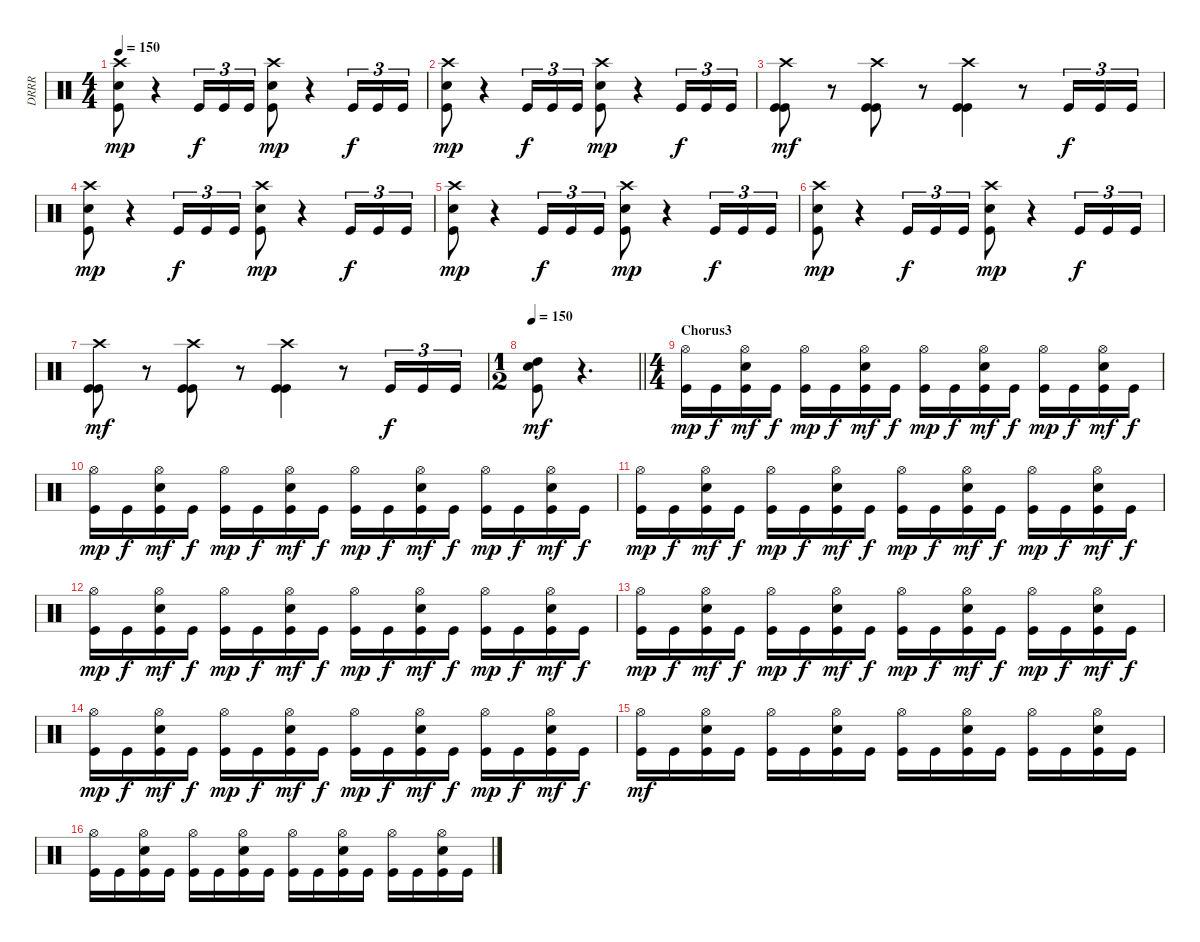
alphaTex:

\track ("DRRR" "DRRR") {instrument percussion}
\staff {score}
\articulation defaults
\ts (4 4)
\tempo 150
\clef neutral
\ks c
("Crash high (hit)" "Snare (hit) 2" "Kick (hit)").8{dy mp} r.4 "Kick (hit)".16{tu (3 2) dy f} "Kick (hit)".16{tu (3 2)} "Kick (hit)".16{tu (3 2)} ("Crash high (hit)" "Snare (hit) 2" "Kick (hit)").8{dy mp} r.4 "Kick (hit)".16{tu (3 2) dy f} "Kick (hit)".16{tu (3 2)} "Kick (hit)".16{tu (3 2)} |
("Crash high (hit)" "Snare (hit) 2" "Kick (hit)").8{dy mp} r.4 "Kick (hit)".16{tu (3 2) dy f} "Kick (hit)".16{tu (3 2)} "Kick (hit)".16{tu (3 2)} ("Crash high (hit)" "Snare (hit) 2" "Kick (hit)").8{dy mp} r.4 "Kick (hit)".16{tu (3 2) dy f} "Kick (hit)".16{tu (3 2)} "Kick (hit)".16{tu (3 2)} |
("Crash high (hit)" "Kick (hit)" "Kick (hit)").8{dy mf} r.8 ("Crash high (hit)" "Kick (hit)" "Kick (hit)").8 r.8 ("Crash high (hit)" "Kick (hit)" "Kick (hit)").4 r.8 "Kick (hit)".16{tu (3 2) dy f} "Kick (hit)".16{tu (3 2)} "Kick (hit)".16{tu (3 2)} |
("Crash high (hit)" "Snare (hit) 2" "Kick (hit)").8{dy mp} r.4 "Kick (hit)".16{tu (3 2) dy f} "Kick (hit)".16{tu (3 2)} "Kick (hit)".16{tu (3 2)} ("Crash high (hit)" "Snare (hit) 2" "Kick (hit)").8{dy mp} r.4 "Kick (hit)".16{tu (3 2) dy f} "Kick (hit)".16{tu (3 2)} "Kick (hit)".16{tu (3 2)} |
("Crash high (hit)" "Snare (hit) 2" "Kick (hit)").8{dy mp} r.4 "Kick (hit)".16{tu (3 2) dy f} "Kick (hit)".16{tu (3 2)} "Kick (hit)".16{tu (3 2)} ("Crash high (hit)" "Snare (hit) 2" "Kick (hit)").8{dy mp} r.4 "Kick (hit)".16{tu (3 2) dy f} "Kick (hit)".16{tu (3 2)} "Kick (hit)".16{tu (3 2)} |
("Crash high (hit)" "Snare (hit) 2" "Kick (hit)").8{dy mp} r.4 "Kick (hit)".16{tu (3 2) dy f} "Kick (hit)".16{tu (3 2)} "Kick (hit)".16{tu (3 2)} ("Crash high (hit)" "Snare (hit) 2" "Kick (hit)").8{dy mp} r.4 "Kick (hit)".16{tu (3 2) dy f} "Kick (hit)".16{tu (3 2)} "Kick (hit)".16{tu (3 2)} |
("Crash high (hit)" "Kick (hit)" "Kick (hit)").8{dy mf} r.8 ("Crash high (hit)" "Kick (hit)" "Kick (hit)").8 r.8 ("Crash high (hit)" "Kick (hit)" "Kick (hit)").4 r.8 "Kick (hit)".16{tu (3 2) dy f} "Kick (hit)".16{tu (3 2)} "Kick (hit)".16{tu (3 2)} |
\ts (1 2)
\tempo 150
\barLineRight lightlight
("High Tom (hit)" "Snare (hit) 2" "Kick (hit)").8{dy mf} r.4{d} |
\ts (4 4)
\section ("" "Chorus3")
("Hi-Hat (open)" "Kick (hit)").16{dy mp} "Kick (hit)".16{dy f} ("Hi-Hat (open)" "Snare (hit) 2" "Kick (hit)").16{dy mf} "Kick (hit)".16{dy f} ("Hi-Hat (open)" "Kick (hit)").16{dy mp} "Kick (hit)".16{dy f} ("Hi-Hat (open)" "Snare (hit) 2" "Kick (hit)").16{dy mf} "Kick (hit)".16{dy f} ("Hi-Hat (open)" "Kick (hit)").16{dy mp} "Kick (hit)".16{dy f} ("Hi-Hat (open)" "Snare (hit) 2" "Kick (hit)").16{dy mf} "Kick (hit)".16{dy f} ("Hi-Hat (open)" "Kick (hit)").16{dy mp} "Kick (hit)".16{dy f} ("Hi-Hat (open)" "Snare (hit) 2" "Kick (hit)").16{dy mf} "Kick (hit)".16{dy f} |
("Hi-Hat (open)" "Kick (hit)").16{dy mp} "Kick (hit)".16{dy f} ("Hi-Hat (open)" "Snare (hit) 2" "Kick (hit)").16{dy mf} "Kick (hit)".16{dy f} ("Hi-Hat (open)" "Kick (hit)").16{dy mp} "Kick (hit)".16{dy f} ("Hi-Hat (open)" "Snare (hit) 2" "Kick (hit)").16{dy mf} "Kick (hit)".16{dy f} ("Hi-Hat (open)" "Kick (hit)").16{dy mp} "Kick (hit)".16{dy f} ("Hi-Hat (open)" "Snare (hit) 2" "Kick (hit)").16{dy mf} "Kick (hit)".16{dy f} ("Hi-Hat (open)" "Kick (hit)").16{dy mp} "Kick (hit)".16{dy f} ("Hi-Hat (open)" "Snare (hit) 2" "Kick (hit)").16{dy mf} "Kick (hit)".16{dy f} |
("Hi-Hat (open)" "Kick (hit)").16{dy mp} "Kick (hit)".16{dy f} ("Hi-Hat (open)" "Snare (hit) 2" "Kick (hit)").16{dy mf} "Kick (hit)".16{dy f} ("Hi-Hat (open)" "Kick (hit)").16{dy mp} "Kick (hit)".16{dy f} ("Hi-Hat (open)" "Snare (hit) 2" "Kick (hit)").16{dy mf} "Kick (hit)".16{dy f} ("Hi-Hat (open)" "Kick (hit)").16{dy mp} "Kick (hit)".16{dy f} ("Hi-Hat (open)" "Snare (hit) 2" "Kick (hit)").16{dy mf} "Kick (hit)".16{dy f} ("Hi-Hat (open)" "Kick (hit)").16{dy mp} "Kick (hit)".16{dy f} ("Hi-Hat (open)" "Snare (hit) 2" "Kick (hit)").16{dy mf} "Kick (hit)".16{dy f} |
("Hi-Hat (open)" "Kick (hit)").16{dy mp} "Kick (hit)".16{dy f} ("Hi-Hat (open)" "Snare (hit) 2" "Kick (hit)").16{dy mf} "Kick (hit)".16{dy f} ("Hi-Hat (open)" "Kick (hit)").16{dy mp} "Kick (hit)".16{dy f} ("Hi-Hat (open)" "Snare (hit) 2" "Kick (hit)").16{dy mf} "Kick (hit)".16{dy f} ("Hi-Hat (open)" "Kick (hit)").16{dy mp} "Kick (hit)".16{dy f} ("Hi-Hat (open)" "Snare (hit) 2" "Kick (hit)").16{dy mf} "Kick (hit)".16{dy f} ("Hi-Hat (open)" "Kick (hit)").16{dy mp} "Kick (hit)".16{dy f} ("Hi-Hat (open)" "Snare (hit) 2" "Kick (hit)").16{dy mf} "Kick (hit)".16{dy f} |
("Hi-Hat (open)" "Kick (hit)").16{dy mp} "Kick (hit)".16{dy f} ("Hi-Hat (open)" "Snare (hit) 2" "Kick (hit)").16{dy mf} "Kick (hit)".16{dy f} ("Hi-Hat (open)" "Kick (hit)").16{dy mp} "Kick (hit)".16{dy f} ("Hi-Hat (open)" "Snare (hit) 2" "Kick (hit)").16{dy mf} "Kick (hit)".16{dy f} ("Hi-Hat (open)" "Kick (hit)").16{dy mp} "Kick (hit)".16{dy f} ("Hi-Hat (open)" "Snare (hit) 2" "Kick (hit)").16{dy mf} "Kick (hit)".16{dy f} ("Hi-Hat (open)" "Kick (hit)").16{dy mp} "Kick (hit)".16{dy f} ("Hi-Hat (open)" "Snare (hit) 2" "Kick (hit)").16{dy mf} "Kick (hit)".16{dy f} |
("Hi-Hat (open)" "Kick (hit)").16{dy mp} "Kick (hit)".16{dy f} ("Hi-Hat (open)" "Snare (hit) 2" "Kick (hit)").16{dy mf} "Kick (hit)".16{dy f} ("Hi-Hat (open)" "Kick (hit)").16{dy mp} "Kick (hit)".16{dy f} ("Hi-Hat (open)" "Snare (hit) 2" "Kick (hit)").16{dy mf} "Kick (hit)".16{dy f} ("Hi-Hat (open)" "Kick (hit)").16{dy mp} "Kick (hit)".16{dy f} ("Hi-Hat (open)" "Snare (hit) 2" "Kick (hit)").16{dy mf} "Kick (hit)".16{dy f} ("Hi-Hat (open)" "Kick (hit)").16{dy mp} "Kick (hit)".16{dy f} ("Hi-Hat (open)" "Snare (hit) 2" "Kick (hit)").16{dy mf} "Kick (hit)".16{dy f} |
("Hi-Hat (open)" "Kick (hit)").16{dy mf} "Kick (hit)".16 ("Hi-Hat (open)" "Snare (hit) 2" "Kick (hit)").16 "Kick (hit)".16 ("Hi-Hat (open)" "Kick (hit)").16 "Kick (hit)".16 ("Hi-Hat (open)" "Snare (hit) 2" "Kick (hit)").16 "Kick (hit)".16 ("Hi-Hat (open)" "Kick (hit)").16 "Kick (hit)".16 ("Hi-Hat (open)" "Snare (hit) 2" "Kick (hit)").16 "Kick (hit)".16 ("Hi-Hat (open)" "Kick (hit)").16 "Kick (hit)".16 ("Hi-Hat (open)" "Snare (hit) 2" "Kick (hit)").16 "Kick (hit)".16 |
("Hi-Hat (open)" "Kick (hit)").16 "Kick (hit)".16 ("Hi-Hat (open)" "Snare (hit) 2" "Kick (hit)").16 "Kick (hit)".16 ("Hi-Hat (open)" "Kick (hit)").16 "Kick (hit)".16 ("Hi-Hat (open)" "Snare (hit) 2" "Kick (hit)").16 "Kick (hit)".16 ("Hi-Hat (open)" "Kick (hit)").16 "Kick (hit)".16 ("Hi-Hat (open)" "Snare (hit) 2" "Kick (hit)").16 "Kick (hit)".16 ("Hi-Hat (open)" "Kick (hit)").16 "Kick (hit)".16 ("Hi-Hat (open)" "Snare (hit) 2" "Kick (hit)").16 "Kick (hit)".16
